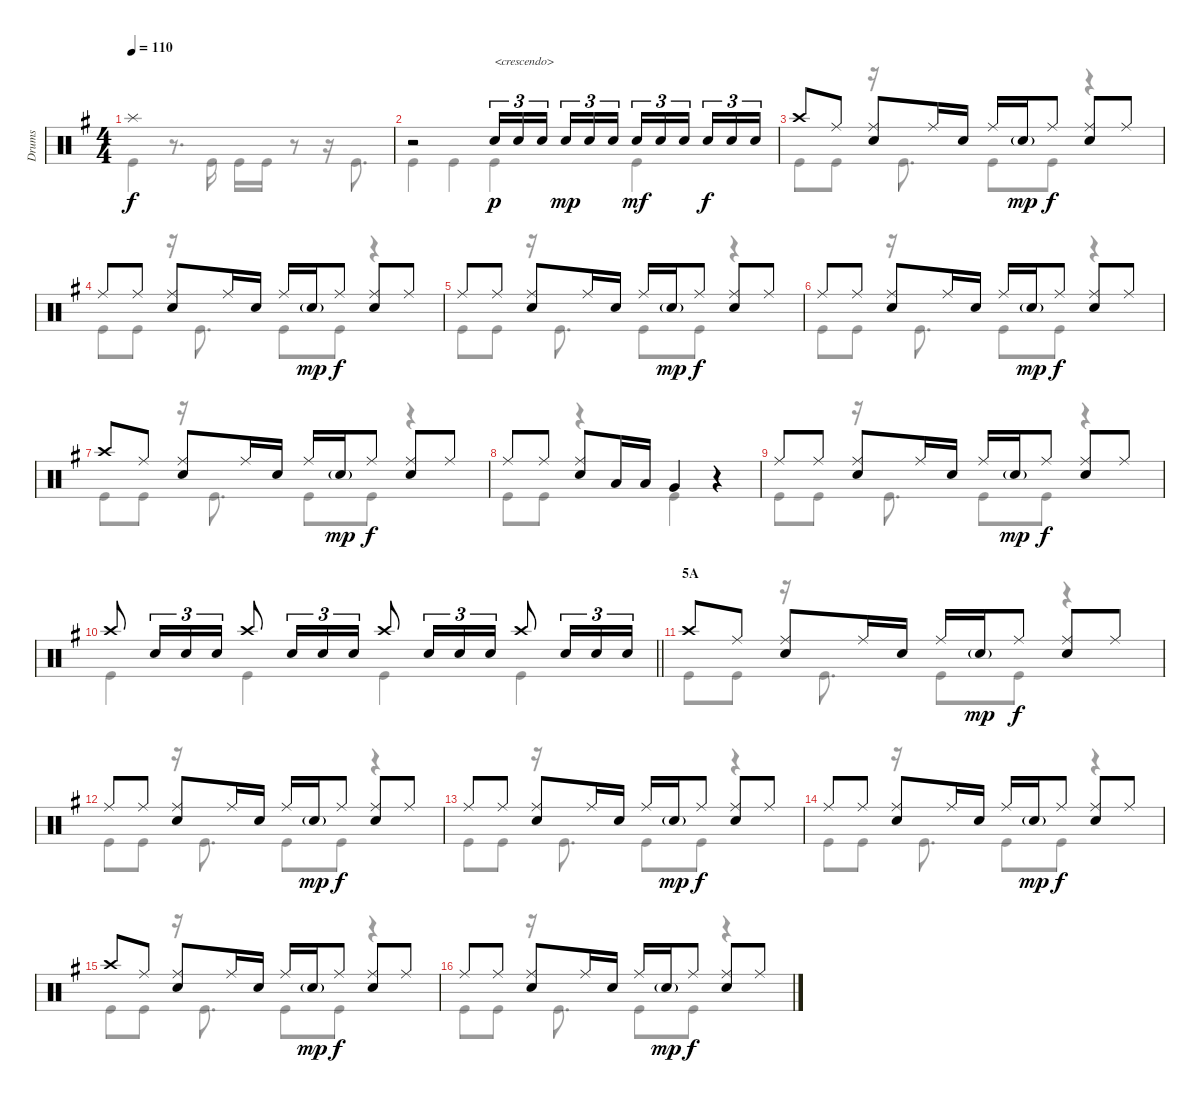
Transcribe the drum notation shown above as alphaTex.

\track ("Drums" "Drums") {instrument percussion}
\staff {score}
\articulation defaults
\voice
\ts (4 4)
\tempo 110
\clef neutral
\ks g "Splash (hit)".1{dy f}
|
r.2 "Snare (hit) 2".16{tu (3 2) txt "<crescendo>" dy p} "Snare (hit) 2".16{tu (3 2)} "Snare (hit) 2".16{tu (3 2) beam splitsecondary} "Snare (hit) 2".16{tu (3 2) dy mp} "Snare (hit) 2".16{tu (3 2)} "Snare (hit) 2".16{tu (3 2)} "Snare (hit) 2".16{tu (3 2) dy mf} "Snare (hit) 2".16{tu (3 2)} "Snare (hit) 2".16{tu (3 2) beam splitsecondary} "Snare (hit) 2".16{tu (3 2) dy f} "Snare (hit) 2".16{tu (3 2)} "Snare (hit) 2".16{tu (3 2)} |
"Crash high (hit)".8 "Ride (middle)".8 ("Ride (middle)" "Snare (hit) 2").8 "Ride (middle)".16 "Snare (hit) 2".16 "Ride (middle)".16 "Snare (hit) 2"{g}.16{dy mp} "Ride (middle)".8{dy f} ("Ride (middle)" "Snare (hit) 2").8 "Ride (middle)".8 |
"Ride (middle)".8 "Ride (middle)".8 ("Ride (middle)" "Snare (hit) 2").8 "Ride (middle)".16 "Snare (hit) 2".16 "Ride (middle)".16 "Snare (hit) 2"{g}.16{dy mp} "Ride (middle)".8{dy f} ("Ride (middle)" "Snare (hit) 2").8 "Ride (middle)".8 |
"Ride (middle)".8 "Ride (middle)".8 ("Ride (middle)" "Snare (hit) 2").8 "Ride (middle)".16 "Snare (hit) 2".16 "Ride (middle)".16 "Snare (hit) 2"{g}.16{dy mp} "Ride (middle)".8{dy f} ("Ride (middle)" "Snare (hit) 2").8 "Ride (middle)".8 |
"Ride (middle)".8 "Ride (middle)".8 ("Ride (middle)" "Snare (hit) 2").8 "Ride (middle)".16 "Snare (hit) 2".16 "Ride (middle)".16 "Snare (hit) 2"{g}.16{dy mp} "Ride (middle)".8{dy f} ("Ride (middle)" "Snare (hit) 2").8 "Ride (middle)".8 |
"Crash high (hit)".8 "Ride (middle)".8 ("Ride (middle)" "Snare (hit) 2").8 "Ride (middle)".16 "Snare (hit) 2".16 "Ride (middle)".16 "Snare (hit) 2"{g}.16{dy mp} "Ride (middle)".8{dy f} ("Ride (middle)" "Snare (hit) 2").8 "Ride (middle)".8 |
"Ride (middle)".8 "Ride (middle)".8 ("Ride (middle)" "Snare (hit) 2").8 "Low Tom (hit)".16 "Low Tom (hit)".16 "Very Low Tom (hit)".4 r.4 |
"Ride (middle)".8 "Ride (middle)".8 ("Ride (middle)" "Snare (hit) 2").8 "Ride (middle)".16 "Snare (hit) 2".16 "Ride (middle)".16 "Snare (hit) 2"{g}.16{dy mp} "Ride (middle)".8{dy f} ("Ride (middle)" "Snare (hit) 2").8 "Ride (middle)".8 |
\barLineRight lightlight "Crash high (hit)".8 "Snare (hit) 2".16{tu (3 2)} "Snare (hit) 2".16{tu (3 2)} "Snare (hit) 2".16{tu (3 2)} "Crash high (hit)".8 "Snare (hit) 2".16{tu (3 2)} "Snare (hit) 2".16{tu (3 2)} "Snare (hit) 2".16{tu (3 2)} "Crash high (hit)".8 "Snare (hit) 2".16{tu (3 2)} "Snare (hit) 2".16{tu (3 2)} "Snare (hit) 2".16{tu (3 2)} "Crash high (hit)".8 "Snare (hit) 2".16{tu (3 2)} "Snare (hit) 2".16{tu (3 2)} "Snare (hit) 2".16{tu (3 2)}
|
\section ("" "5A")
"Crash high (hit)".8 "Ride (middle)".8 ("Ride (middle)" "Snare (hit) 2").8 "Ride (middle)".16 "Snare (hit) 2".16 "Ride (middle)".16 "Snare (hit) 2"{g}.16{dy mp} "Ride (middle)".8{dy f} ("Ride (middle)" "Snare (hit) 2").8 "Ride (middle)".8 |
"Ride (middle)".8 "Ride (middle)".8 ("Ride (middle)" "Snare (hit) 2").8 "Ride (middle)".16 "Snare (hit) 2".16 "Ride (middle)".16 "Snare (hit) 2"{g}.16{dy mp} "Ride (middle)".8{dy f} ("Ride (middle)" "Snare (hit) 2").8 "Ride (middle)".8 |
"Ride (middle)".8 "Ride (middle)".8 ("Ride (middle)" "Snare (hit) 2").8 "Ride (middle)".16 "Snare (hit) 2".16 "Ride (middle)".16 "Snare (hit) 2"{g}.16{dy mp} "Ride (middle)".8{dy f} ("Ride (middle)" "Snare (hit) 2").8 "Ride (middle)".8 |
"Ride (middle)".8 "Ride (middle)".8 ("Ride (middle)" "Snare (hit) 2").8 "Ride (middle)".16 "Snare (hit) 2".16 "Ride (middle)".16 "Snare (hit) 2"{g}.16{dy mp} "Ride (middle)".8{dy f} ("Ride (middle)" "Snare (hit) 2").8 "Ride (middle)".8 |
"Crash high (hit)".8 "Ride (middle)".8 ("Ride (middle)" "Snare (hit) 2").8 "Ride (middle)".16 "Snare (hit) 2".16 "Ride (middle)".16 "Snare (hit) 2"{g}.16{dy mp} "Ride (middle)".8{dy f} ("Ride (middle)" "Snare (hit) 2").8 "Ride (middle)".8 |
"Ride (middle)".8 "Ride (middle)".8 ("Ride (middle)" "Snare (hit) 2").8 "Ride (middle)".16 "Snare (hit) 2".16 "Ride (middle)".16 "Snare (hit) 2"{g}.16{dy mp} "Ride (middle)".8{dy f} ("Ride (middle)" "Snare (hit) 2").8 "Ride (middle)".8
\voice
\clef neutral
\ottava regular
\simile none
\ks g "Kick (hit)".4{dy f}
r.8{d} "Kick (hit)".16 "Kick (hit)".16 "Kick (hit)".16 r.8 r.16 "Kick (hit)".8{d} |
"Kick (hit)".4 "Kick (hit)".4 "Kick (hit)".4 "Kick (hit)".4 |
"Kick (hit)".8 "Kick (hit)".8 r.16 "Kick (hit)".8{d} "Kick (hit)".8 "Kick (hit)".8 r.4 |
"Kick (hit)".8 "Kick (hit)".8 r.16 "Kick (hit)".8{d} "Kick (hit)".8 "Kick (hit)".8 r.4 |
"Kick (hit)".8 "Kick (hit)".8 r.16 "Kick (hit)".8{d} "Kick (hit)".8 "Kick (hit)".8 r.4 |
"Kick (hit)".8 "Kick (hit)".8 r.16 "Kick (hit)".8{d} "Kick (hit)".8 "Kick (hit)".8 r.4 |
"Kick (hit)".8 "Kick (hit)".8 r.16 "Kick (hit)".8{d} "Kick (hit)".8 "Kick (hit)".8 r.4 |
"Kick (hit)".8 "Kick (hit)".8 r.4 "Kick (hit)".4 r.4 |
"Kick (hit)".8 "Kick (hit)".8 r.16 "Kick (hit)".8{d} "Kick (hit)".8 "Kick (hit)".8 r.4 |
\barLineRight lightlight "Kick (hit)".4 "Kick (hit)".4 "Kick (hit)".4 "Kick (hit)".4
|
"Kick (hit)".8 "Kick (hit)".8 r.16 "Kick (hit)".8{d} "Kick (hit)".8 "Kick (hit)".8 r.4 |
"Kick (hit)".8 "Kick (hit)".8 r.16 "Kick (hit)".8{d} "Kick (hit)".8 "Kick (hit)".8 r.4 |
"Kick (hit)".8 "Kick (hit)".8 r.16 "Kick (hit)".8{d} "Kick (hit)".8 "Kick (hit)".8 r.4 |
"Kick (hit)".8 "Kick (hit)".8 r.16 "Kick (hit)".8{d} "Kick (hit)".8 "Kick (hit)".8 r.4 |
"Kick (hit)".8 "Kick (hit)".8 r.16 "Kick (hit)".8{d} "Kick (hit)".8 "Kick (hit)".8 r.4 |
"Kick (hit)".8 "Kick (hit)".8 r.16 "Kick (hit)".8{d} "Kick (hit)".8 "Kick (hit)".8 r.4
